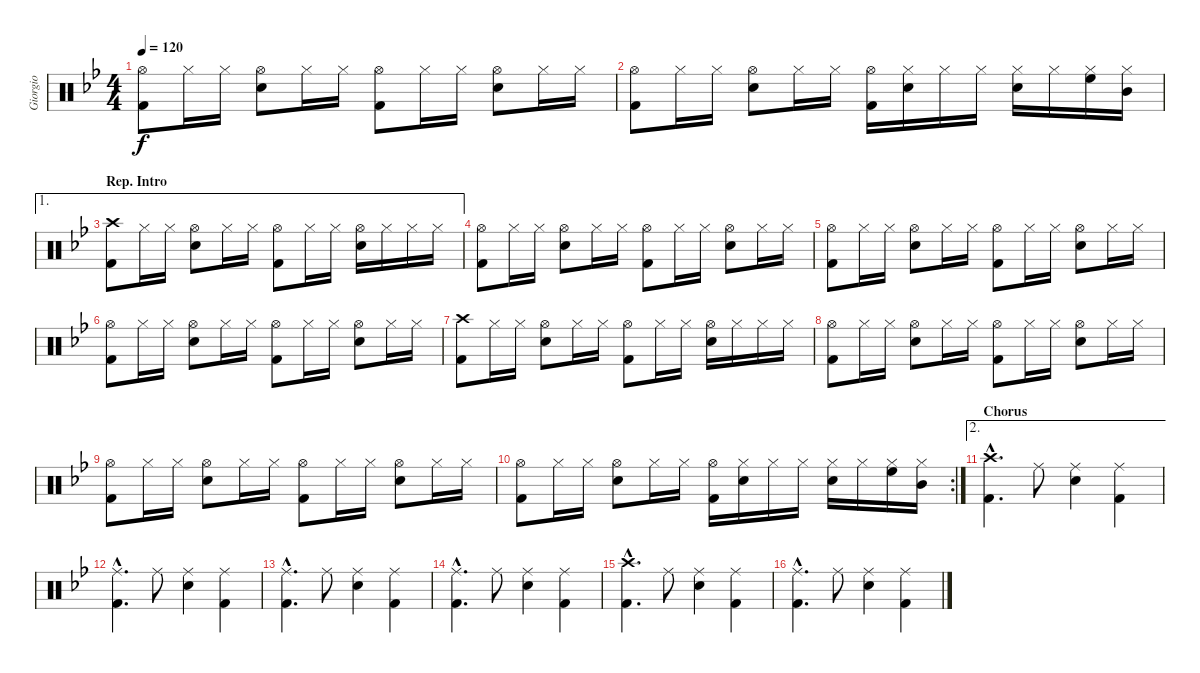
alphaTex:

\track ("Giorgio" "Giorgio") {instrument percussion}
\staff {score}
\articulation defaults
\ts (4 4)
\tempo 120
\clef neutral
\ks gminor
("Hi-Hat (open)" "Kick (hit) 2").8{dy f} "Hi-Hat (closed)".16 "Hi-Hat (closed)".16 ("Hi-Hat (open)" "Snare (hit) 2").8 "Hi-Hat (closed)".16 "Hi-Hat (closed)".16 ("Hi-Hat (open)" "Kick (hit) 2").8 "Hi-Hat (closed)".16 "Hi-Hat (closed)".16 ("Hi-Hat (open)" "Snare (hit) 2").8 "Hi-Hat (closed)".16 "Hi-Hat (closed)".16 |
("Hi-Hat (open)" "Kick (hit) 2").8 "Hi-Hat (closed)".16 "Hi-Hat (closed)".16 ("Hi-Hat (open)" "Snare (hit) 2").8 "Hi-Hat (closed)".16 "Hi-Hat (closed)".16 ("Hi-Hat (open)" "Kick (hit) 2").16 ("Hi-Hat (closed)" "Snare (hit) 2").16 "Hi-Hat (closed)".16 "Hi-Hat (closed)".16 ("Hi-Hat (closed)" "Snare (hit) 2").16 "Hi-Hat (closed)".16 ("Hi-Hat (closed)" "High Floor Tom (hit)").16 ("Hi-Hat (closed)" "Mid Tom (hit)").16 |
\ae 1
\section ("" "Rep. Intro")
("Crash high (hit)" "Kick (hit) 2").8 "Hi-Hat (closed)".16 "Hi-Hat (closed)".16 ("Hi-Hat (open)" "Snare (hit) 2").8 "Hi-Hat (closed)".16 "Hi-Hat (closed)".16 ("Hi-Hat (open)" "Kick (hit) 2").8 "Hi-Hat (closed)".16 "Hi-Hat (closed)".16 ("Hi-Hat (open)" "Snare (hit) 2").16 "Hi-Hat (closed)".16 "Hi-Hat (closed)".16 "Hi-Hat (closed)".16 |
("Hi-Hat (open)" "Kick (hit) 2").8 "Hi-Hat (closed)".16 "Hi-Hat (closed)".16 ("Hi-Hat (open)" "Snare (hit) 2").8 "Hi-Hat (closed)".16 "Hi-Hat (closed)".16 ("Hi-Hat (open)" "Kick (hit) 2").8 "Hi-Hat (closed)".16 "Hi-Hat (closed)".16 ("Hi-Hat (open)" "Snare (hit) 2").8 "Hi-Hat (closed)".16 "Hi-Hat (closed)".16 |
("Hi-Hat (open)" "Kick (hit) 2").8 "Hi-Hat (closed)".16 "Hi-Hat (closed)".16 ("Hi-Hat (open)" "Snare (hit) 2").8 "Hi-Hat (closed)".16 "Hi-Hat (closed)".16 ("Hi-Hat (open)" "Kick (hit) 2").8 "Hi-Hat (closed)".16 "Hi-Hat (closed)".16 ("Hi-Hat (open)" "Snare (hit) 2").8 "Hi-Hat (closed)".16 "Hi-Hat (closed)".16 |
("Hi-Hat (open)" "Kick (hit) 2").8 "Hi-Hat (closed)".16 "Hi-Hat (closed)".16 ("Hi-Hat (open)" "Snare (hit) 2").8 "Hi-Hat (closed)".16 "Hi-Hat (closed)".16 ("Hi-Hat (open)" "Kick (hit) 2").8 "Hi-Hat (closed)".16 "Hi-Hat (closed)".16 ("Hi-Hat (open)" "Snare (hit) 2").8 "Hi-Hat (closed)".16 "Hi-Hat (closed)".16 |
("Crash high (hit)" "Kick (hit) 2").8 "Hi-Hat (closed)".16 "Hi-Hat (closed)".16 ("Hi-Hat (open)" "Snare (hit) 2").8 "Hi-Hat (closed)".16 "Hi-Hat (closed)".16 ("Hi-Hat (open)" "Kick (hit) 2").8 "Hi-Hat (closed)".16 "Hi-Hat (closed)".16 ("Hi-Hat (open)" "Snare (hit) 2").16 "Hi-Hat (closed)".16 "Hi-Hat (closed)".16 "Hi-Hat (closed)".16 |
("Hi-Hat (open)" "Kick (hit) 2").8 "Hi-Hat (closed)".16 "Hi-Hat (closed)".16 ("Hi-Hat (open)" "Snare (hit) 2").8 "Hi-Hat (closed)".16 "Hi-Hat (closed)".16 ("Hi-Hat (open)" "Kick (hit) 2").8 "Hi-Hat (closed)".16 "Hi-Hat (closed)".16 ("Hi-Hat (open)" "Snare (hit) 2").8 "Hi-Hat (closed)".16 "Hi-Hat (closed)".16 |
("Hi-Hat (open)" "Kick (hit) 2").8 "Hi-Hat (closed)".16 "Hi-Hat (closed)".16 ("Hi-Hat (open)" "Snare (hit) 2").8 "Hi-Hat (closed)".16 "Hi-Hat (closed)".16 ("Hi-Hat (open)" "Kick (hit) 2").8 "Hi-Hat (closed)".16 "Hi-Hat (closed)".16 ("Hi-Hat (open)" "Snare (hit) 2").8 "Hi-Hat (closed)".16 "Hi-Hat (closed)".16 |
\rc 2
("Hi-Hat (open)" "Kick (hit) 2").8 "Hi-Hat (closed)".16 "Hi-Hat (closed)".16 ("Hi-Hat (open)" "Snare (hit) 2").8 "Hi-Hat (closed)".16 "Hi-Hat (closed)".16 ("Hi-Hat (open)" "Kick (hit) 2").16 ("Hi-Hat (closed)" "Snare (hit) 2").16 "Hi-Hat (closed)".16 "Hi-Hat (closed)".16 ("Hi-Hat (closed)" "Snare (hit) 2").16 "Hi-Hat (closed)".16 ("Hi-Hat (closed)" "High Floor Tom (hit)").16 ("Hi-Hat (closed)" "Mid Tom (hit)").16 |
\ae 2
\section ("" "Chorus")
("Crash high (hit)"{hac} "Kick (hit) 2"{hac}).4{d} "Ride (middle)".8 ("Ride (middle)" "Snare (hit) 2").4 ("Ride (middle)" "Kick (hit) 2").4 |
("Ride (middle)"{hac} "Kick (hit) 2"{hac}).4{d} "Ride (middle)".8 ("Ride (middle)" "Snare (hit) 2").4 ("Kick (hit) 2" "Ride (middle)").4 |
("Ride (middle)"{hac} "Kick (hit) 2"{hac}).4{d} "Ride (middle)".8 ("Ride (middle)" "Snare (hit) 2").4 ("Kick (hit) 2" "Ride (middle)").4 |
("Ride (middle)"{hac} "Kick (hit) 2"{hac}).4{d} "Ride (middle)".8 ("Ride (middle)" "Snare (hit) 2").4 ("Kick (hit) 2" "Ride (middle)").4 |
("Crash high (hit)"{hac} "Kick (hit) 2"{hac}).4{d} "Ride (middle)".8 ("Ride (middle)" "Snare (hit) 2").4 ("Ride (middle)" "Kick (hit) 2").4 |
("Ride (middle)"{hac} "Kick (hit) 2"{hac}).4{d} "Ride (middle)".8 ("Ride (middle)" "Snare (hit) 2").4 ("Kick (hit) 2" "Ride (middle)").4
